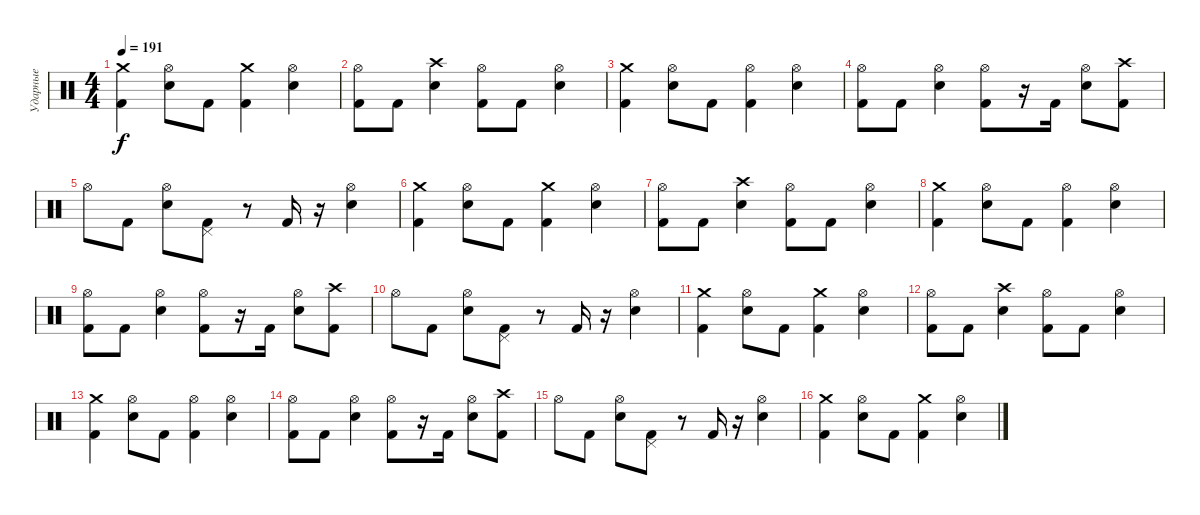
\track ("Ударные" "Ударные") {instrument percussion}
\staff {score}
\articulation defaults
\ts (4 4)
\tempo 191
\clef neutral
\ks c
("Crash medium (hit)" "Kick (hit) 2").4{dy f} ("Hi-Hat (open)" "Snare (hit) 2").8 "Kick (hit) 2".8 ("Crash medium (hit)" "Kick (hit) 2").4 ("Hi-Hat (open)" "Snare (hit) 2").4 |
("Hi-Hat (open)" "Kick (hit) 2").8 "Kick (hit) 2".8 ("Crash high (hit)" "Snare (hit) 2").4 ("Hi-Hat (open)" "Kick (hit) 2").8 "Kick (hit) 2".8 ("Hi-Hat (open)" "Snare (hit) 2").4 |
("Crash medium (hit)" "Kick (hit) 2").4 ("Hi-Hat (open)" "Snare (hit) 2").8 "Kick (hit) 2".8 ("Hi-Hat (open)" "Kick (hit) 2").4 ("Hi-Hat (open)" "Snare (hit) 2").4 |
("Hi-Hat (open)" "Kick (hit) 2").8 "Kick (hit) 2".8 ("Hi-Hat (open)" "Snare (hit) 2").4 ("Hi-Hat (open)" "Kick (hit) 2").8 r.16 "Kick (hit) 2".16 ("Hi-Hat (open)" "Snare (hit) 2").8 ("Crash high (hit)" "Kick (hit) 2").8 |
"Hi-Hat (open)".8 "Kick (hit) 2".8 ("Hi-Hat (open)" "Snare (hit) 2").8 ("Pedal Hi-Hat (hit)" "Kick (hit) 2").8 r.8 "Kick (hit) 2".16 r.16 ("Hi-Hat (open)" "Snare (hit) 2").4 |
("Crash medium (hit)" "Kick (hit) 2").4 ("Hi-Hat (open)" "Snare (hit) 2").8 "Kick (hit) 2".8 ("Crash medium (hit)" "Kick (hit) 2").4 ("Hi-Hat (open)" "Snare (hit) 2").4 |
("Hi-Hat (open)" "Kick (hit) 2").8 "Kick (hit) 2".8 ("Crash high (hit)" "Snare (hit) 2").4 ("Hi-Hat (open)" "Kick (hit) 2").8 "Kick (hit) 2".8 ("Hi-Hat (open)" "Snare (hit) 2").4 |
("Crash medium (hit)" "Kick (hit) 2").4 ("Hi-Hat (open)" "Snare (hit) 2").8 "Kick (hit) 2".8 ("Hi-Hat (open)" "Kick (hit) 2").4 ("Hi-Hat (open)" "Snare (hit) 2").4 |
("Hi-Hat (open)" "Kick (hit) 2").8 "Kick (hit) 2".8 ("Hi-Hat (open)" "Snare (hit) 2").4 ("Hi-Hat (open)" "Kick (hit) 2").8 r.16 "Kick (hit) 2".16 ("Hi-Hat (open)" "Snare (hit) 2").8 ("Crash high (hit)" "Kick (hit) 2").8 |
"Hi-Hat (open)".8 "Kick (hit) 2".8 ("Hi-Hat (open)" "Snare (hit) 2").8 ("Pedal Hi-Hat (hit)" "Kick (hit) 2").8 r.8 "Kick (hit) 2".16 r.16 ("Hi-Hat (open)" "Snare (hit) 2").4 |
("Crash medium (hit)" "Kick (hit) 2").4 ("Hi-Hat (open)" "Snare (hit) 2").8 "Kick (hit) 2".8 ("Crash medium (hit)" "Kick (hit) 2").4 ("Hi-Hat (open)" "Snare (hit) 2").4 |
("Hi-Hat (open)" "Kick (hit) 2").8 "Kick (hit) 2".8 ("Crash high (hit)" "Snare (hit) 2").4 ("Hi-Hat (open)" "Kick (hit) 2").8 "Kick (hit) 2".8 ("Hi-Hat (open)" "Snare (hit) 2").4 |
("Crash medium (hit)" "Kick (hit) 2").4 ("Hi-Hat (open)" "Snare (hit) 2").8 "Kick (hit) 2".8 ("Hi-Hat (open)" "Kick (hit) 2").4 ("Hi-Hat (open)" "Snare (hit) 2").4 |
("Hi-Hat (open)" "Kick (hit) 2").8 "Kick (hit) 2".8 ("Hi-Hat (open)" "Snare (hit) 2").4 ("Hi-Hat (open)" "Kick (hit) 2").8 r.16 "Kick (hit) 2".16 ("Hi-Hat (open)" "Snare (hit) 2").8 ("Crash high (hit)" "Kick (hit) 2").8 |
"Hi-Hat (open)".8 "Kick (hit) 2".8 ("Hi-Hat (open)" "Snare (hit) 2").8 ("Pedal Hi-Hat (hit)" "Kick (hit) 2").8 r.8 "Kick (hit) 2".16 r.16 ("Hi-Hat (open)" "Snare (hit) 2").4 |
("Crash medium (hit)" "Kick (hit) 2").4 ("Hi-Hat (open)" "Snare (hit) 2").8 "Kick (hit) 2".8 ("Crash medium (hit)" "Kick (hit) 2").4 ("Hi-Hat (open)" "Snare (hit) 2").4
